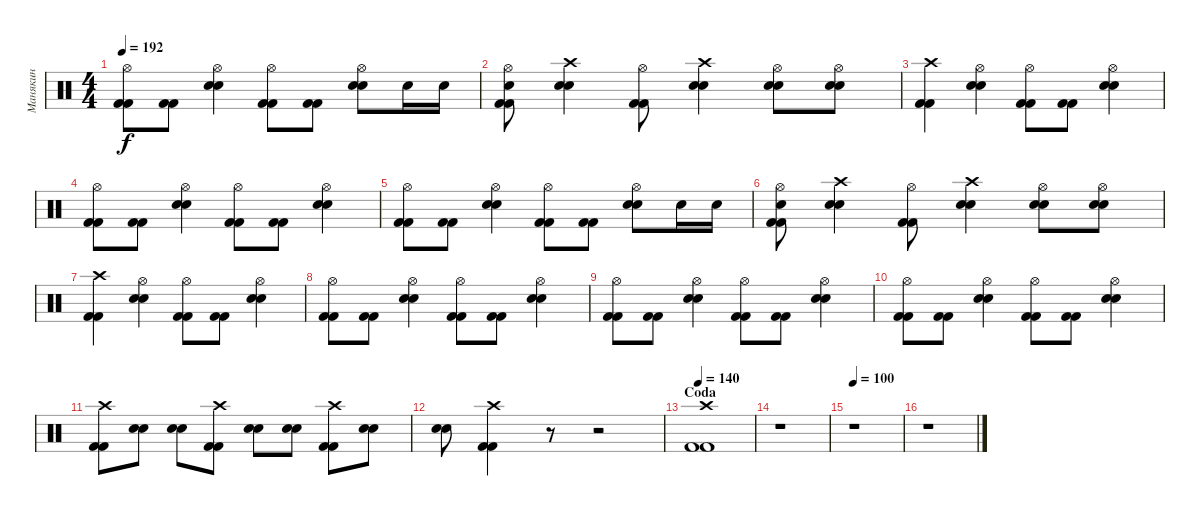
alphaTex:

\track ("Манякин" "Манякин") {instrument percussion}
\staff {score}
\articulation defaults
\ts (4 4)
\tempo 192
\clef neutral
\ks c
("Hi-Hat (open)" "Kick (hit) 2" "Kick (hit) 2").8{dy f} ("Kick (hit) 2" "Kick (hit) 2").8 ("Hi-Hat (open)" "Electric Snare (hit)" "Electric Snare (hit)").4 ("Hi-Hat (open)" "Kick (hit) 2" "Kick (hit) 2").8 ("Kick (hit) 2" "Kick (hit) 2").8 ("Hi-Hat (open)" "Electric Snare (hit)" "Electric Snare (hit)").8 "Electric Snare (hit)".16 "Electric Snare (hit)".16 |
("Hi-Hat (open)" "Electric Snare (hit)" "Kick (hit) 2" "Kick (hit) 2").8 ("Crash high (hit)" "Electric Snare (hit)" "Electric Snare (hit)").4 ("Hi-Hat (open)" "Kick (hit) 2" "Kick (hit) 2").8 ("Crash high (hit)" "Electric Snare (hit)" "Electric Snare (hit)").4 ("Hi-Hat (open)" "Electric Snare (hit)" "Electric Snare (hit)").8 ("Hi-Hat (open)" "Electric Snare (hit)" "Electric Snare (hit)").8 |
("Crash high (hit)" "Kick (hit) 2" "Kick (hit) 2").4 ("Hi-Hat (open)" "Electric Snare (hit)" "Electric Snare (hit)").4 ("Hi-Hat (open)" "Kick (hit) 2" "Kick (hit) 2").8 ("Kick (hit) 2" "Kick (hit) 2").8 ("Hi-Hat (open)" "Electric Snare (hit)" "Electric Snare (hit)").4 |
("Hi-Hat (open)" "Kick (hit) 2" "Kick (hit) 2").8 ("Kick (hit) 2" "Kick (hit) 2").8 ("Hi-Hat (open)" "Electric Snare (hit)" "Electric Snare (hit)").4 ("Hi-Hat (open)" "Kick (hit) 2" "Kick (hit) 2").8 ("Kick (hit) 2" "Kick (hit) 2").8 ("Hi-Hat (open)" "Electric Snare (hit)" "Electric Snare (hit)").4 |
("Hi-Hat (open)" "Kick (hit) 2" "Kick (hit) 2").8 ("Kick (hit) 2" "Kick (hit) 2").8 ("Hi-Hat (open)" "Electric Snare (hit)" "Electric Snare (hit)").4 ("Hi-Hat (open)" "Kick (hit) 2" "Kick (hit) 2").8 ("Kick (hit) 2" "Kick (hit) 2").8 ("Hi-Hat (open)" "Electric Snare (hit)" "Electric Snare (hit)").8 "Electric Snare (hit)".16 "Electric Snare (hit)".16 |
("Hi-Hat (open)" "Electric Snare (hit)" "Kick (hit) 2" "Kick (hit) 2").8 ("Crash high (hit)" "Electric Snare (hit)" "Electric Snare (hit)").4 ("Hi-Hat (open)" "Kick (hit) 2" "Kick (hit) 2").8 ("Crash high (hit)" "Electric Snare (hit)" "Electric Snare (hit)").4 ("Hi-Hat (open)" "Electric Snare (hit)" "Electric Snare (hit)").8 ("Hi-Hat (open)" "Electric Snare (hit)" "Electric Snare (hit)").8 |
("Crash high (hit)" "Kick (hit) 2" "Kick (hit) 2").4 ("Hi-Hat (open)" "Electric Snare (hit)" "Electric Snare (hit)").4 ("Hi-Hat (open)" "Kick (hit) 2" "Kick (hit) 2").8 ("Kick (hit) 2" "Kick (hit) 2").8 ("Hi-Hat (open)" "Electric Snare (hit)" "Electric Snare (hit)").4 |
("Hi-Hat (open)" "Kick (hit) 2" "Kick (hit) 2").8 ("Kick (hit) 2" "Kick (hit) 2").8 ("Hi-Hat (open)" "Electric Snare (hit)" "Electric Snare (hit)").4 ("Hi-Hat (open)" "Kick (hit) 2" "Kick (hit) 2").8 ("Kick (hit) 2" "Kick (hit) 2").8 ("Hi-Hat (open)" "Electric Snare (hit)" "Electric Snare (hit)").4 |
("Hi-Hat (open)" "Kick (hit) 2" "Kick (hit) 2").8 ("Kick (hit) 2" "Kick (hit) 2").8 ("Hi-Hat (open)" "Electric Snare (hit)" "Electric Snare (hit)").4 ("Hi-Hat (open)" "Kick (hit) 2" "Kick (hit) 2").8 ("Kick (hit) 2" "Kick (hit) 2").8 ("Hi-Hat (open)" "Electric Snare (hit)" "Electric Snare (hit)").4 |
("Hi-Hat (open)" "Kick (hit) 2" "Kick (hit) 2").8 ("Kick (hit) 2" "Kick (hit) 2").8 ("Hi-Hat (open)" "Electric Snare (hit)" "Electric Snare (hit)").4 ("Hi-Hat (open)" "Kick (hit) 2" "Kick (hit) 2").8 ("Kick (hit) 2" "Kick (hit) 2").8 ("Hi-Hat (open)" "Electric Snare (hit)" "Electric Snare (hit)").4 |
("Crash high (hit)" "Kick (hit) 2" "Kick (hit) 2").8 ("Electric Snare (hit)" "Electric Snare (hit)").8 ("Electric Snare (hit)" "Electric Snare (hit)").8 ("Crash high (hit)" "Kick (hit) 2" "Kick (hit) 2").8 ("Electric Snare (hit)" "Electric Snare (hit)").8 ("Electric Snare (hit)" "Electric Snare (hit)").8 ("Crash high (hit)" "Kick (hit) 2" "Kick (hit) 2").8 ("Electric Snare (hit)" "Electric Snare (hit)").8 |
("Electric Snare (hit)" "Electric Snare (hit)").8 ("Crash high (hit)" "Kick (hit) 2" "Kick (hit) 2").4 r.8 r.2 |
\section ("" "Coda")
\tempo 140
("Crash high (hit)" "Kick (hit) 2" "Kick (hit) 2").1 |
r.1 |
\tempo 100
r.1 |
r.1
